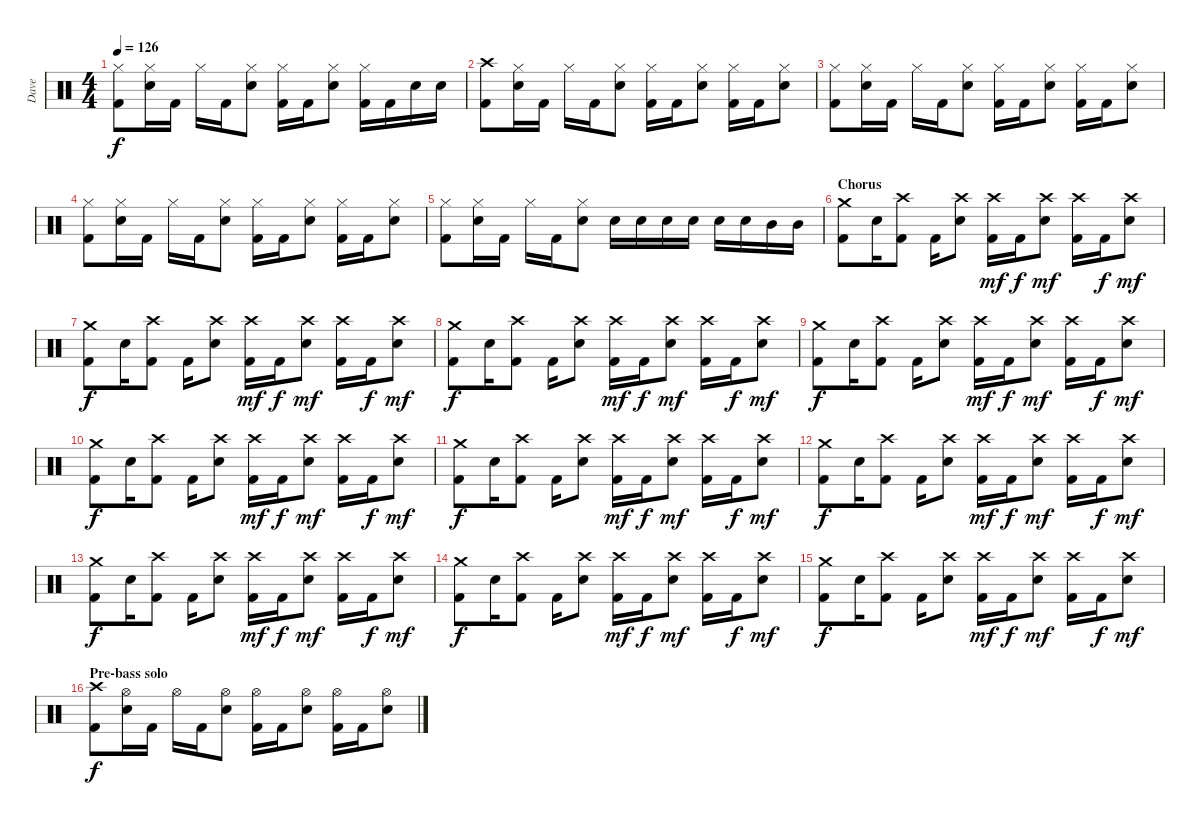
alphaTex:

\track ("Dave" "Dave") {instrument percussion}
\staff {score}
\articulation defaults
\ts (4 4)
\tempo 126
\clef neutral
\ks c
("Kick (hit) 2" "Hi-Hat (closed)").8{dy f} ("Electric Snare (hit)" "Hi-Hat (closed)").16 "Kick (hit) 2".16 "Hi-Hat (closed)".16 "Kick (hit) 2".16 ("Electric Snare (hit)" "Hi-Hat (closed)").8 ("Kick (hit) 2" "Hi-Hat (closed)").16 "Kick (hit) 2".16 ("Electric Snare (hit)" "Hi-Hat (closed)").8 ("Kick (hit) 2" "Hi-Hat (closed)").16 "Kick (hit) 2".16 "Electric Snare (hit)".16 "Electric Snare (hit)".16 |
("Kick (hit) 2" "Crash high (hit)").8 ("Electric Snare (hit)" "Hi-Hat (closed)").16 "Kick (hit) 2".16 "Hi-Hat (closed)".16 "Kick (hit) 2".16 ("Electric Snare (hit)" "Hi-Hat (closed)").8 ("Kick (hit) 2" "Hi-Hat (closed)").16 "Kick (hit) 2".16 ("Electric Snare (hit)" "Hi-Hat (closed)").8 ("Kick (hit) 2" "Hi-Hat (closed)").16 "Kick (hit) 2".16 ("Electric Snare (hit)" "Hi-Hat (closed)").8 |
("Kick (hit) 2" "Hi-Hat (closed)").8 ("Electric Snare (hit)" "Hi-Hat (closed)").16 "Kick (hit) 2".16 "Hi-Hat (closed)".16 "Kick (hit) 2".16 ("Electric Snare (hit)" "Hi-Hat (closed)").8 ("Kick (hit) 2" "Hi-Hat (closed)").16 "Kick (hit) 2".16 ("Electric Snare (hit)" "Hi-Hat (closed)").8 ("Kick (hit) 2" "Hi-Hat (closed)").16 "Kick (hit) 2".16 ("Electric Snare (hit)" "Hi-Hat (closed)").8 |
("Kick (hit) 2" "Hi-Hat (closed)").8 ("Electric Snare (hit)" "Hi-Hat (closed)").16 "Kick (hit) 2".16 "Hi-Hat (closed)".16 "Kick (hit) 2".16 ("Electric Snare (hit)" "Hi-Hat (closed)").8 ("Kick (hit) 2" "Hi-Hat (closed)").16 "Kick (hit) 2".16 ("Electric Snare (hit)" "Hi-Hat (closed)").8 ("Kick (hit) 2" "Hi-Hat (closed)").16 "Kick (hit) 2".16 ("Electric Snare (hit)" "Hi-Hat (closed)").8 |
("Kick (hit) 2" "Hi-Hat (closed)").8 ("Electric Snare (hit)" "Hi-Hat (closed)").16 "Kick (hit) 2".16 "Hi-Hat (closed)".16 "Kick (hit) 2".16 ("Electric Snare (hit)" "Hi-Hat (closed)").8 "Electric Snare (hit)".16 "Electric Snare (hit)".16 "Electric Snare (hit)".16 "Electric Snare (hit)".16 "Electric Snare (hit)".16 "Electric Snare (hit)".16 "Mid Tom (hit)".16 "Mid Tom (hit)".16 |
\section ("" "Chorus")
("Kick (hit) 2" "Crash medium (hit)").8 "Electric Snare (hit)".16 ("Kick (hit) 2" "Crash high (hit)").8 "Kick (hit) 2".16 ("Electric Snare (hit)" "Crash high (hit)").8 ("Kick (hit) 2" "Crash high (hit)").16{dy mf} "Kick (hit) 2".16{dy f} ("Electric Snare (hit)" "Crash high (hit)").8{dy mf} ("Kick (hit) 2" "Crash high (hit)").16 "Kick (hit) 2".16{dy f} ("Electric Snare (hit)" "Crash high (hit)").8{dy mf} |
("Kick (hit) 2" "Crash medium (hit)").8{dy f} "Electric Snare (hit)".16 ("Kick (hit) 2" "Crash high (hit)").8 "Kick (hit) 2".16 ("Electric Snare (hit)" "Crash high (hit)").8 ("Kick (hit) 2" "Crash high (hit)").16{dy mf} "Kick (hit) 2".16{dy f} ("Electric Snare (hit)" "Crash high (hit)").8{dy mf} ("Kick (hit) 2" "Crash high (hit)").16 "Kick (hit) 2".16{dy f} ("Electric Snare (hit)" "Crash high (hit)").8{dy mf} |
("Kick (hit) 2" "Crash medium (hit)").8{dy f} "Electric Snare (hit)".16 ("Kick (hit) 2" "Crash high (hit)").8 "Kick (hit) 2".16 ("Electric Snare (hit)" "Crash high (hit)").8 ("Kick (hit) 2" "Crash high (hit)").16{dy mf} "Kick (hit) 2".16{dy f} ("Electric Snare (hit)" "Crash high (hit)").8{dy mf} ("Kick (hit) 2" "Crash high (hit)").16 "Kick (hit) 2".16{dy f} ("Electric Snare (hit)" "Crash high (hit)").8{dy mf} |
("Kick (hit) 2" "Crash medium (hit)").8{dy f} "Electric Snare (hit)".16 ("Kick (hit) 2" "Crash high (hit)").8 "Kick (hit) 2".16 ("Electric Snare (hit)" "Crash high (hit)").8 ("Kick (hit) 2" "Crash high (hit)").16{dy mf} "Kick (hit) 2".16{dy f} ("Electric Snare (hit)" "Crash high (hit)").8{dy mf} ("Kick (hit) 2" "Crash high (hit)").16 "Kick (hit) 2".16{dy f} ("Electric Snare (hit)" "Crash high (hit)").8{dy mf} |
("Kick (hit) 2" "Crash medium (hit)").8{dy f} "Electric Snare (hit)".16 ("Kick (hit) 2" "Crash high (hit)").8 "Kick (hit) 2".16 ("Electric Snare (hit)" "Crash high (hit)").8 ("Kick (hit) 2" "Crash high (hit)").16{dy mf} "Kick (hit) 2".16{dy f} ("Electric Snare (hit)" "Crash high (hit)").8{dy mf} ("Kick (hit) 2" "Crash high (hit)").16 "Kick (hit) 2".16{dy f} ("Electric Snare (hit)" "Crash high (hit)").8{dy mf} |
("Kick (hit) 2" "Crash medium (hit)").8{dy f} "Electric Snare (hit)".16 ("Kick (hit) 2" "Crash high (hit)").8 "Kick (hit) 2".16 ("Electric Snare (hit)" "Crash high (hit)").8 ("Kick (hit) 2" "Crash high (hit)").16{dy mf} "Kick (hit) 2".16{dy f} ("Electric Snare (hit)" "Crash high (hit)").8{dy mf} ("Kick (hit) 2" "Crash high (hit)").16 "Kick (hit) 2".16{dy f} ("Electric Snare (hit)" "Crash high (hit)").8{dy mf} |
("Kick (hit) 2" "Crash medium (hit)").8{dy f} "Electric Snare (hit)".16 ("Kick (hit) 2" "Crash high (hit)").8 "Kick (hit) 2".16 ("Electric Snare (hit)" "Crash high (hit)").8 ("Kick (hit) 2" "Crash high (hit)").16{dy mf} "Kick (hit) 2".16{dy f} ("Electric Snare (hit)" "Crash high (hit)").8{dy mf} ("Kick (hit) 2" "Crash high (hit)").16 "Kick (hit) 2".16{dy f} ("Electric Snare (hit)" "Crash high (hit)").8{dy mf} |
("Kick (hit) 2" "Crash medium (hit)").8{dy f} "Electric Snare (hit)".16 ("Kick (hit) 2" "Crash high (hit)").8 "Kick (hit) 2".16 ("Electric Snare (hit)" "Crash high (hit)").8 ("Kick (hit) 2" "Crash high (hit)").16{dy mf} "Kick (hit) 2".16{dy f} ("Electric Snare (hit)" "Crash high (hit)").8{dy mf} ("Kick (hit) 2" "Crash high (hit)").16 "Kick (hit) 2".16{dy f} ("Electric Snare (hit)" "Crash high (hit)").8{dy mf} |
("Kick (hit) 2" "Crash medium (hit)").8{dy f} "Electric Snare (hit)".16 ("Kick (hit) 2" "Crash high (hit)").8 "Kick (hit) 2".16 ("Electric Snare (hit)" "Crash high (hit)").8 ("Kick (hit) 2" "Crash high (hit)").16{dy mf} "Kick (hit) 2".16{dy f} ("Electric Snare (hit)" "Crash high (hit)").8{dy mf} ("Kick (hit) 2" "Crash high (hit)").16 "Kick (hit) 2".16{dy f} ("Electric Snare (hit)" "Crash high (hit)").8{dy mf} |
("Kick (hit) 2" "Crash medium (hit)").8{dy f} "Electric Snare (hit)".16 ("Kick (hit) 2" "Crash high (hit)").8 "Kick (hit) 2".16 ("Electric Snare (hit)" "Crash high (hit)").8 ("Kick (hit) 2" "Crash high (hit)").16{dy mf} "Kick (hit) 2".16{dy f} ("Electric Snare (hit)" "Crash high (hit)").8{dy mf} ("Kick (hit) 2" "Crash high (hit)").16 "Kick (hit) 2".16{dy f} ("Electric Snare (hit)" "Crash high (hit)").8{dy mf} |
\section ("" "Pre-bass solo")
("Kick (hit) 2" "Crash high (hit)").8{dy f} ("Electric Snare (hit)" "Hi-Hat (open)").16 "Kick (hit) 2".16 "Hi-Hat (open)".16 "Kick (hit) 2".16 ("Electric Snare (hit)" "Hi-Hat (open)").8 ("Kick (hit) 2" "Hi-Hat (open)").16 "Kick (hit) 2".16 ("Electric Snare (hit)" "Hi-Hat (open)").8 ("Kick (hit) 2" "Hi-Hat (open)").16 "Kick (hit) 2".16 ("Electric Snare (hit)" "Hi-Hat (open)").8
